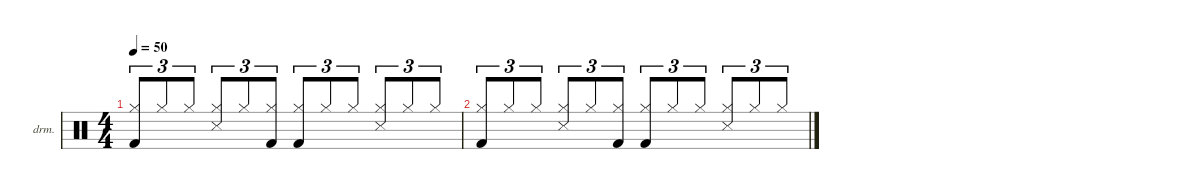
\defaultSystemsLayout 4
\hideDynamics
\bracketExtendMode nobrackets
\firstSystemTrackNameOrientation horizontal
\otherSystemsTrackNameOrientation horizontal
\track ("Drumkit" "drm.") {defaultSystemsLayout 4 instrument percussion}
\staff {score}
\articulation defaults
\ts (4 4)
\tempo 50
\clef neutral
\ks c
("Hi-Hat (closed)" "Kick (hit) 2").8{tu (3 2) dy mf beam Up} "Hi-Hat (closed)".8{tu (3 2) beam Up} "Hi-Hat (closed)".8{tu (3 2) beam Up} ("Hi-Hat (closed)" "Snare (side stick) 3").8{tu (3 2) beam Up} "Hi-Hat (closed)".8{tu (3 2) beam Up} ("Hi-Hat (closed)" "Kick (hit) 2").8{tu (3 2) beam Up} ("Hi-Hat (closed)" "Kick (hit) 2").8{tu (3 2) beam Up} "Hi-Hat (closed)".8{tu (3 2) beam Up} "Hi-Hat (closed)".8{tu (3 2) beam Up} ("Hi-Hat (closed)" "Snare (side stick) 3").8{tu (3 2) beam Up} "Hi-Hat (closed)".8{tu (3 2) beam Up} "Hi-Hat (closed)".8{tu (3 2) beam Up} |
("Hi-Hat (closed)" "Kick (hit) 2").8{tu (3 2) beam Up} "Hi-Hat (closed)".8{tu (3 2) beam Up} "Hi-Hat (closed)".8{tu (3 2) beam Up} ("Hi-Hat (closed)" "Snare (side stick) 3").8{tu (3 2) beam Up} "Hi-Hat (closed)".8{tu (3 2) beam Up} ("Hi-Hat (closed)" "Kick (hit) 2").8{tu (3 2) beam Up} ("Hi-Hat (closed)" "Kick (hit) 2").8{tu (3 2) beam Up} "Hi-Hat (closed)".8{tu (3 2) beam Up} "Hi-Hat (closed)".8{tu (3 2) beam Up} ("Hi-Hat (closed)" "Snare (side stick) 3").8{tu (3 2) beam Up} "Hi-Hat (closed)".8{tu (3 2) beam Up} "Hi-Hat (closed)".8{tu (3 2) beam Up}
